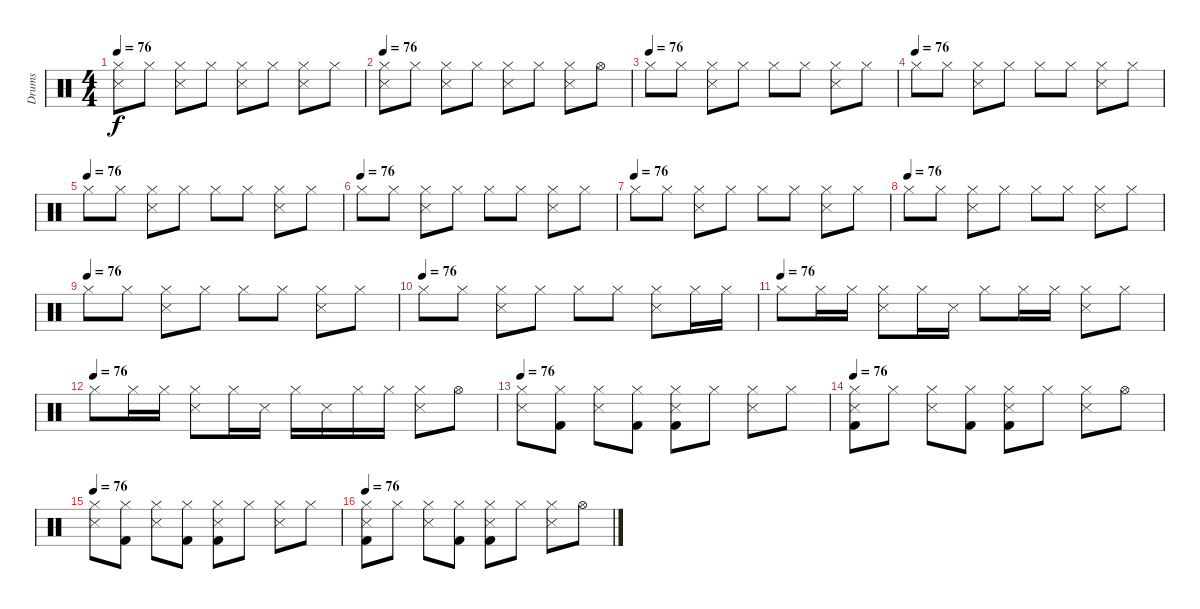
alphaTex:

\track ("Drums" "Drums") {instrument percussion}
\staff {score}
\articulation defaults
\ts (4 4)
\tempo 76
\clef neutral
\ks c
("Hi-Hat (closed)" "Snare (side stick) 3").8{dy f} "Hi-Hat (closed)".8 ("Hi-Hat (closed)" "Snare (side stick) 3").8 "Hi-Hat (closed)".8 ("Hi-Hat (closed)" "Snare (side stick) 3").8 "Hi-Hat (closed)".8 ("Hi-Hat (closed)" "Snare (side stick) 3").8 "Hi-Hat (closed)".8 |
\tempo 76
("Hi-Hat (closed)" "Snare (side stick) 3").8 "Hi-Hat (closed)".8 ("Hi-Hat (closed)" "Snare (side stick) 3").8 "Hi-Hat (closed)".8 ("Hi-Hat (closed)" "Snare (side stick) 3").8 "Hi-Hat (closed)".8 ("Hi-Hat (closed)" "Snare (side stick) 3").8 "Hi-Hat (open)".8 |
\tempo (76)
"Hi-Hat (closed)".8 "Hi-Hat (closed)".8 ("Hi-Hat (closed)" "Snare (side stick) 3").8 "Hi-Hat (closed)".8 "Hi-Hat (closed)".8 "Hi-Hat (closed)".8 ("Hi-Hat (closed)" "Snare (side stick) 3").8 "Hi-Hat (closed)".8 |
\tempo (76)
"Hi-Hat (closed)".8 "Hi-Hat (closed)".8 ("Hi-Hat (closed)" "Snare (side stick) 3").8 "Hi-Hat (closed)".8 "Hi-Hat (closed)".8 "Hi-Hat (closed)".8 ("Hi-Hat (closed)" "Snare (side stick) 3").8 "Hi-Hat (closed)".8 |
\tempo (76)
"Hi-Hat (closed)".8 "Hi-Hat (closed)".8 ("Hi-Hat (closed)" "Snare (side stick) 3").8 "Hi-Hat (closed)".8 "Hi-Hat (closed)".8 "Hi-Hat (closed)".8 ("Hi-Hat (closed)" "Snare (side stick) 3").8 "Hi-Hat (closed)".8 |
\tempo (76)
"Hi-Hat (closed)".8 "Hi-Hat (closed)".8 ("Hi-Hat (closed)" "Snare (side stick) 3").8 "Hi-Hat (closed)".8 "Hi-Hat (closed)".8 "Hi-Hat (closed)".8 ("Hi-Hat (closed)" "Snare (side stick) 3").8 "Hi-Hat (closed)".8 |
\tempo (76)
"Hi-Hat (closed)".8 "Hi-Hat (closed)".8 ("Hi-Hat (closed)" "Snare (side stick) 3").8 "Hi-Hat (closed)".8 "Hi-Hat (closed)".8 "Hi-Hat (closed)".8 ("Hi-Hat (closed)" "Snare (side stick) 3").8 "Hi-Hat (closed)".8 |
\tempo (76)
"Hi-Hat (closed)".8 "Hi-Hat (closed)".8 ("Hi-Hat (closed)" "Snare (side stick) 3").8 "Hi-Hat (closed)".8 "Hi-Hat (closed)".8 "Hi-Hat (closed)".8 ("Hi-Hat (closed)" "Snare (side stick) 3").8 "Hi-Hat (closed)".8 |
\tempo (76)
"Hi-Hat (closed)".8 "Hi-Hat (closed)".8 ("Hi-Hat (closed)" "Snare (side stick) 3").8 "Hi-Hat (closed)".8 "Hi-Hat (closed)".8 "Hi-Hat (closed)".8 ("Hi-Hat (closed)" "Snare (side stick) 3").8 "Hi-Hat (closed)".8 |
\tempo (76)
"Hi-Hat (closed)".8 "Hi-Hat (closed)".8 ("Hi-Hat (closed)" "Snare (side stick) 3").8 "Hi-Hat (closed)".8 "Hi-Hat (closed)".8 "Hi-Hat (closed)".8 ("Hi-Hat (closed)" "Snare (side stick) 3").8 "Hi-Hat (closed)".16 "Hi-Hat (closed)".16 |
\tempo (76)
"Hi-Hat (closed)".8 "Hi-Hat (closed)".16 "Hi-Hat (closed)".16 ("Hi-Hat (closed)" "Snare (side stick) 3").8 "Hi-Hat (closed)".16 "Snare (side stick) 3".16 "Hi-Hat (closed)".8 "Hi-Hat (closed)".16 "Hi-Hat (closed)".16 ("Hi-Hat (closed)" "Snare (side stick) 3").8 "Hi-Hat (closed)".8 |
\tempo (76)
"Hi-Hat (closed)".8 "Hi-Hat (closed)".16 "Hi-Hat (closed)".16 ("Hi-Hat (closed)" "Snare (side stick) 3").8 "Hi-Hat (closed)".16 "Snare (side stick) 3".16 "Hi-Hat (closed)".16 "Snare (side stick) 3".16 "Hi-Hat (closed)".16 "Hi-Hat (closed)".16 ("Hi-Hat (closed)" "Snare (side stick) 3").8 "Hi-Hat (open)".8 |
\tempo 76
("Hi-Hat (closed)" "Snare (side stick) 3").8 ("Hi-Hat (closed)" "Kick (hit) 2").8 ("Hi-Hat (closed)" "Snare (side stick) 3").8 ("Hi-Hat (closed)" "Kick (hit) 2").8 ("Hi-Hat (closed)" "Snare (side stick) 3" "Kick (hit) 2").8 "Hi-Hat (closed)".8 ("Hi-Hat (closed)" "Snare (side stick) 3").8 "Hi-Hat (closed)".8 |
\tempo 76
("Hi-Hat (closed)" "Snare (side stick) 3" "Kick (hit) 2").8 "Hi-Hat (closed)".8 ("Hi-Hat (closed)" "Snare (side stick) 3").8 ("Hi-Hat (closed)" "Kick (hit) 2").8 ("Hi-Hat (closed)" "Snare (side stick) 3" "Kick (hit) 2").8 "Hi-Hat (closed)".8 ("Hi-Hat (closed)" "Snare (side stick) 3").8 "Hi-Hat (open)".8 |
\tempo 76
("Hi-Hat (closed)" "Snare (side stick) 3").8 ("Hi-Hat (closed)" "Kick (hit) 2").8 ("Hi-Hat (closed)" "Snare (side stick) 3").8 ("Hi-Hat (closed)" "Kick (hit) 2").8 ("Hi-Hat (closed)" "Snare (side stick) 3" "Kick (hit) 2").8 "Hi-Hat (closed)".8 ("Hi-Hat (closed)" "Snare (side stick) 3").8 "Hi-Hat (closed)".8 |
\tempo 76
("Hi-Hat (closed)" "Snare (side stick) 3" "Kick (hit) 2").8 "Hi-Hat (closed)".8 ("Hi-Hat (closed)" "Snare (side stick) 3").8 ("Hi-Hat (closed)" "Kick (hit) 2").8 ("Hi-Hat (closed)" "Snare (side stick) 3" "Kick (hit) 2").8 "Hi-Hat (closed)".8 ("Hi-Hat (closed)" "Snare (side stick) 3").8 "Hi-Hat (open)".8
